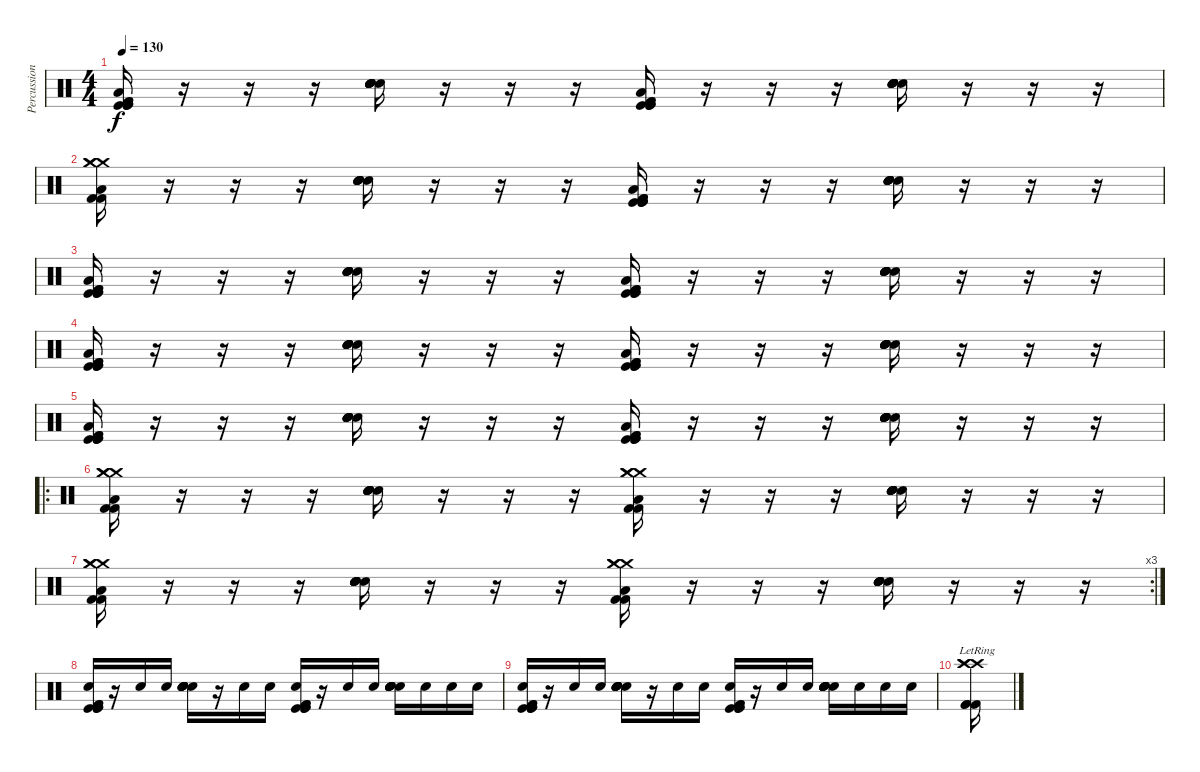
\track ("Percussion" "Percussion") {instrument percussion}
\staff {score}
\articulation defaults
\ts (4 4)
\tempo 130
\clef neutral
\ks c
("Kick (hit)" "Kick (hit)" "Kick (hit)" "Kick (hit) 2" "Kick (hit) 2" "Low Floor Tom (hit)").16{dy f} r.16 r.16 r.16 ("Snare (hit) 2" "Snare (hit) 2" "Snare (hit) 2" "Electric Snare (hit)" "Electric Snare (hit)" "Electric Snare (hit)").16 r.16 r.16 r.16 ("Kick (hit)" "Kick (hit)" "Kick (hit)" "Kick (hit) 2" "Kick (hit) 2" "Low Floor Tom (hit)").16 r.16 r.16 r.16 ("Snare (hit) 2" "Snare (hit) 2" "Snare (hit) 2" "Electric Snare (hit)" "Electric Snare (hit)" "Electric Snare (hit)").16 r.16 r.16 r.16 |
("Crash medium (hit)" "Crash medium (hit)" "Crash medium (hit)" "Kick (hit) 2" "Kick (hit) 2" "Low Floor Tom (hit)").16 r.16 r.16 r.16 ("Snare (hit) 2" "Snare (hit) 2" "Snare (hit) 2" "Electric Snare (hit)" "Electric Snare (hit)" "Electric Snare (hit)").16 r.16 r.16 r.16 ("Kick (hit)" "Kick (hit)" "Kick (hit)" "Kick (hit) 2" "Kick (hit) 2" "Low Floor Tom (hit)").16 r.16 r.16 r.16 ("Snare (hit) 2" "Snare (hit) 2" "Snare (hit) 2" "Electric Snare (hit)" "Electric Snare (hit)" "Electric Snare (hit)").16 r.16 r.16 r.16 |
("Kick (hit)" "Kick (hit)" "Kick (hit)" "Kick (hit) 2" "Kick (hit) 2" "Low Floor Tom (hit)").16 r.16 r.16 r.16 ("Snare (hit) 2" "Snare (hit) 2" "Snare (hit) 2" "Electric Snare (hit)" "Electric Snare (hit)" "Electric Snare (hit)").16 r.16 r.16 r.16 ("Kick (hit)" "Kick (hit)" "Kick (hit)" "Kick (hit) 2" "Kick (hit) 2" "Low Floor Tom (hit)").16 r.16 r.16 r.16 ("Snare (hit) 2" "Snare (hit) 2" "Snare (hit) 2" "Electric Snare (hit)" "Electric Snare (hit)" "Electric Snare (hit)").16 r.16 r.16 r.16 |
("Kick (hit)" "Kick (hit)" "Kick (hit)" "Kick (hit) 2" "Kick (hit) 2" "Low Floor Tom (hit)").16 r.16 r.16 r.16 ("Snare (hit) 2" "Snare (hit) 2" "Snare (hit) 2" "Electric Snare (hit)" "Electric Snare (hit)" "Electric Snare (hit)").16 r.16 r.16 r.16 ("Kick (hit)" "Kick (hit)" "Kick (hit)" "Kick (hit) 2" "Kick (hit) 2" "Low Floor Tom (hit)").16 r.16 r.16 r.16 ("Snare (hit) 2" "Snare (hit) 2" "Snare (hit) 2" "Electric Snare (hit)" "Electric Snare (hit)" "Electric Snare (hit)").16 r.16 r.16 r.16 |
("Kick (hit)" "Kick (hit)" "Kick (hit)" "Kick (hit) 2" "Kick (hit) 2" "Low Floor Tom (hit)").16 r.16 r.16 r.16 ("Snare (hit) 2" "Snare (hit) 2" "Snare (hit) 2" "Electric Snare (hit)" "Electric Snare (hit)" "Electric Snare (hit)").16 r.16 r.16 r.16 ("Kick (hit)" "Kick (hit)" "Kick (hit)" "Kick (hit) 2" "Kick (hit) 2" "Low Floor Tom (hit)").16 r.16 r.16 r.16 ("Snare (hit) 2" "Snare (hit) 2" "Snare (hit) 2" "Electric Snare (hit)" "Electric Snare (hit)" "Electric Snare (hit)").16 r.16 r.16 r.16 |
\ro
("Crash medium (hit)" "Crash medium (hit)" "Crash medium (hit)" "Kick (hit) 2" "Kick (hit) 2" "Low Floor Tom (hit)").16 r.16 r.16 r.16 ("Snare (hit) 2" "Snare (hit) 2" "Snare (hit) 2" "Electric Snare (hit)" "Electric Snare (hit)" "Electric Snare (hit)").16 r.16 r.16 r.16 ("Crash medium (hit)" "Crash medium (hit)" "Crash medium (hit)" "Kick (hit) 2" "Kick (hit) 2" "Low Floor Tom (hit)").16 r.16 r.16 r.16 ("Snare (hit) 2" "Snare (hit) 2" "Snare (hit) 2" "Electric Snare (hit)" "Electric Snare (hit)" "Electric Snare (hit)").16 r.16 r.16 r.16 |
\rc 3
("Crash medium (hit)" "Crash medium (hit)" "Crash medium (hit)" "Kick (hit) 2" "Kick (hit) 2" "Low Floor Tom (hit)").16 r.16 r.16 r.16 ("Snare (hit) 2" "Snare (hit) 2" "Snare (hit) 2" "Electric Snare (hit)" "Electric Snare (hit)" "Electric Snare (hit)").16 r.16 r.16 r.16 ("Crash medium (hit)" "Crash medium (hit)" "Crash medium (hit)" "Kick (hit) 2" "Kick (hit) 2" "Low Floor Tom (hit)").16 r.16 r.16 r.16 ("Snare (hit) 2" "Snare (hit) 2" "Snare (hit) 2" "Electric Snare (hit)" "Electric Snare (hit)" "Electric Snare (hit)").16 r.16 r.16 r.16 |
("Kick (hit)" "Kick (hit)" "Kick (hit)" "Kick (hit) 2" "Kick (hit) 2" "Electric Snare (hit)").16 r.16 "Electric Snare (hit)".16 "Electric Snare (hit)".16 ("Snare (hit) 2" "Snare (hit) 2" "Snare (hit) 2" "Electric Snare (hit)" "Electric Snare (hit)" "Electric Snare (hit)").16 r.16 "Electric Snare (hit)".16 "Electric Snare (hit)".16 ("Kick (hit)" "Kick (hit)" "Kick (hit)" "Kick (hit) 2" "Kick (hit) 2" "Electric Snare (hit)").16 r.16 "Electric Snare (hit)".16 "Electric Snare (hit)".16 ("Snare (hit) 2" "Snare (hit) 2" "Snare (hit) 2" "Electric Snare (hit)" "Electric Snare (hit)" "Electric Snare (hit)").16 "Electric Snare (hit)".16 "Electric Snare (hit)".16 "Electric Snare (hit)".16 |
("Kick (hit)" "Kick (hit)" "Kick (hit)" "Kick (hit) 2" "Kick (hit) 2" "Electric Snare (hit)").16 r.16 "Electric Snare (hit)".16 "Electric Snare (hit)".16 ("Snare (hit) 2" "Snare (hit) 2" "Snare (hit) 2" "Electric Snare (hit)" "Electric Snare (hit)" "Electric Snare (hit)").16 r.16 "Electric Snare (hit)".16 "Electric Snare (hit)".16 ("Kick (hit)" "Kick (hit)" "Kick (hit)" "Kick (hit) 2" "Kick (hit) 2" "Electric Snare (hit)").16 r.16 "Electric Snare (hit)".16 "Electric Snare (hit)".16 ("Snare (hit) 2" "Snare (hit) 2" "Snare (hit) 2" "Electric Snare (hit)" "Electric Snare (hit)" "Electric Snare (hit)").16 "Electric Snare (hit)".16 "Electric Snare (hit)".16 "Electric Snare (hit)".16 |
("Crash high (hit)"{lr} "Crash high (hit)"{lr} "Crash high (hit)"{lr} "Kick (hit) 2"{lr} "Kick (hit) 2"{lr} "Kick (hit) 2"{lr}).16
